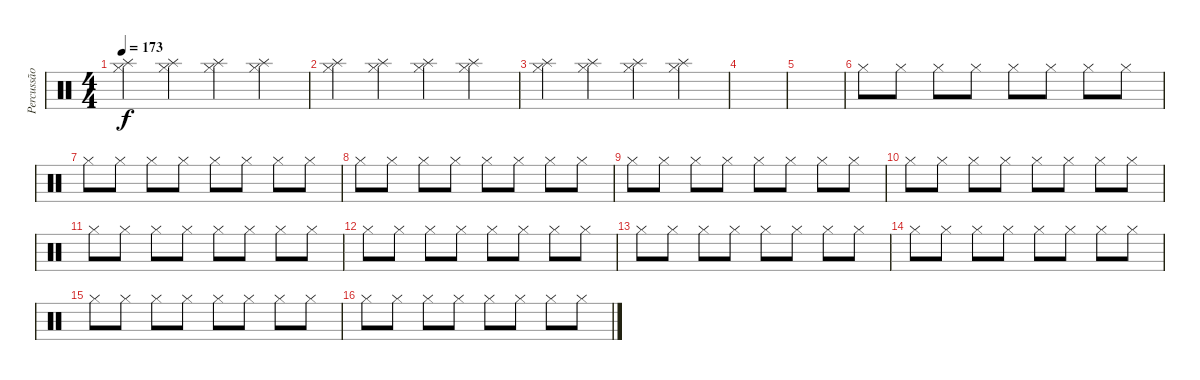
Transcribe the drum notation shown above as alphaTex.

\track ("Percussão" "Percussão") {instrument percussion}
\staff {score}
\articulation defaults
\ts (4 4)
\tempo 173
\clef neutral
\ks c
("Splash (hit)" "Hi-Hat (closed)").4{dy f} ("Splash (hit)" "Hi-Hat (closed)").4 ("Splash (hit)" "Hi-Hat (closed)").4 ("Splash (hit)" "Hi-Hat (closed)").4 |
("Splash (hit)" "Hi-Hat (closed)").4 ("Splash (hit)" "Hi-Hat (closed)").4 ("Splash (hit)" "Hi-Hat (closed)").4 ("Splash (hit)" "Hi-Hat (closed)").4 |
("Splash (hit)" "Hi-Hat (closed)").4 ("Splash (hit)" "Hi-Hat (closed)").4 ("Splash (hit)" "Hi-Hat (closed)").4 ("Splash (hit)" "Hi-Hat (closed)").4 |
|
|
"Hi-Hat (closed)".8 "Hi-Hat (closed)".8 "Hi-Hat (closed)".8 "Hi-Hat (closed)".8 "Hi-Hat (closed)".8 "Hi-Hat (closed)".8 "Hi-Hat (closed)".8 "Hi-Hat (closed)".8 |
"Hi-Hat (closed)".8 "Hi-Hat (closed)".8 "Hi-Hat (closed)".8 "Hi-Hat (closed)".8 "Hi-Hat (closed)".8 "Hi-Hat (closed)".8 "Hi-Hat (closed)".8 "Hi-Hat (closed)".8 |
"Hi-Hat (closed)".8 "Hi-Hat (closed)".8 "Hi-Hat (closed)".8 "Hi-Hat (closed)".8 "Hi-Hat (closed)".8 "Hi-Hat (closed)".8 "Hi-Hat (closed)".8 "Hi-Hat (closed)".8 |
"Hi-Hat (closed)".8 "Hi-Hat (closed)".8 "Hi-Hat (closed)".8 "Hi-Hat (closed)".8 "Hi-Hat (closed)".8 "Hi-Hat (closed)".8 "Hi-Hat (closed)".8 "Hi-Hat (closed)".8 |
"Hi-Hat (closed)".8 "Hi-Hat (closed)".8 "Hi-Hat (closed)".8 "Hi-Hat (closed)".8 "Hi-Hat (closed)".8 "Hi-Hat (closed)".8 "Hi-Hat (closed)".8 "Hi-Hat (closed)".8 |
"Hi-Hat (closed)".8 "Hi-Hat (closed)".8 "Hi-Hat (closed)".8 "Hi-Hat (closed)".8 "Hi-Hat (closed)".8 "Hi-Hat (closed)".8 "Hi-Hat (closed)".8 "Hi-Hat (closed)".8 |
"Hi-Hat (closed)".8 "Hi-Hat (closed)".8 "Hi-Hat (closed)".8 "Hi-Hat (closed)".8 "Hi-Hat (closed)".8 "Hi-Hat (closed)".8 "Hi-Hat (closed)".8 "Hi-Hat (closed)".8 |
"Hi-Hat (closed)".8 "Hi-Hat (closed)".8 "Hi-Hat (closed)".8 "Hi-Hat (closed)".8 "Hi-Hat (closed)".8 "Hi-Hat (closed)".8 "Hi-Hat (closed)".8 "Hi-Hat (closed)".8 |
"Hi-Hat (closed)".8 "Hi-Hat (closed)".8 "Hi-Hat (closed)".8 "Hi-Hat (closed)".8 "Hi-Hat (closed)".8 "Hi-Hat (closed)".8 "Hi-Hat (closed)".8 "Hi-Hat (closed)".8 |
"Hi-Hat (closed)".8 "Hi-Hat (closed)".8 "Hi-Hat (closed)".8 "Hi-Hat (closed)".8 "Hi-Hat (closed)".8 "Hi-Hat (closed)".8 "Hi-Hat (closed)".8 "Hi-Hat (closed)".8 |
"Hi-Hat (closed)".8 "Hi-Hat (closed)".8 "Hi-Hat (closed)".8 "Hi-Hat (closed)".8 "Hi-Hat (closed)".8 "Hi-Hat (closed)".8 "Hi-Hat (closed)".8 "Hi-Hat (closed)".8
